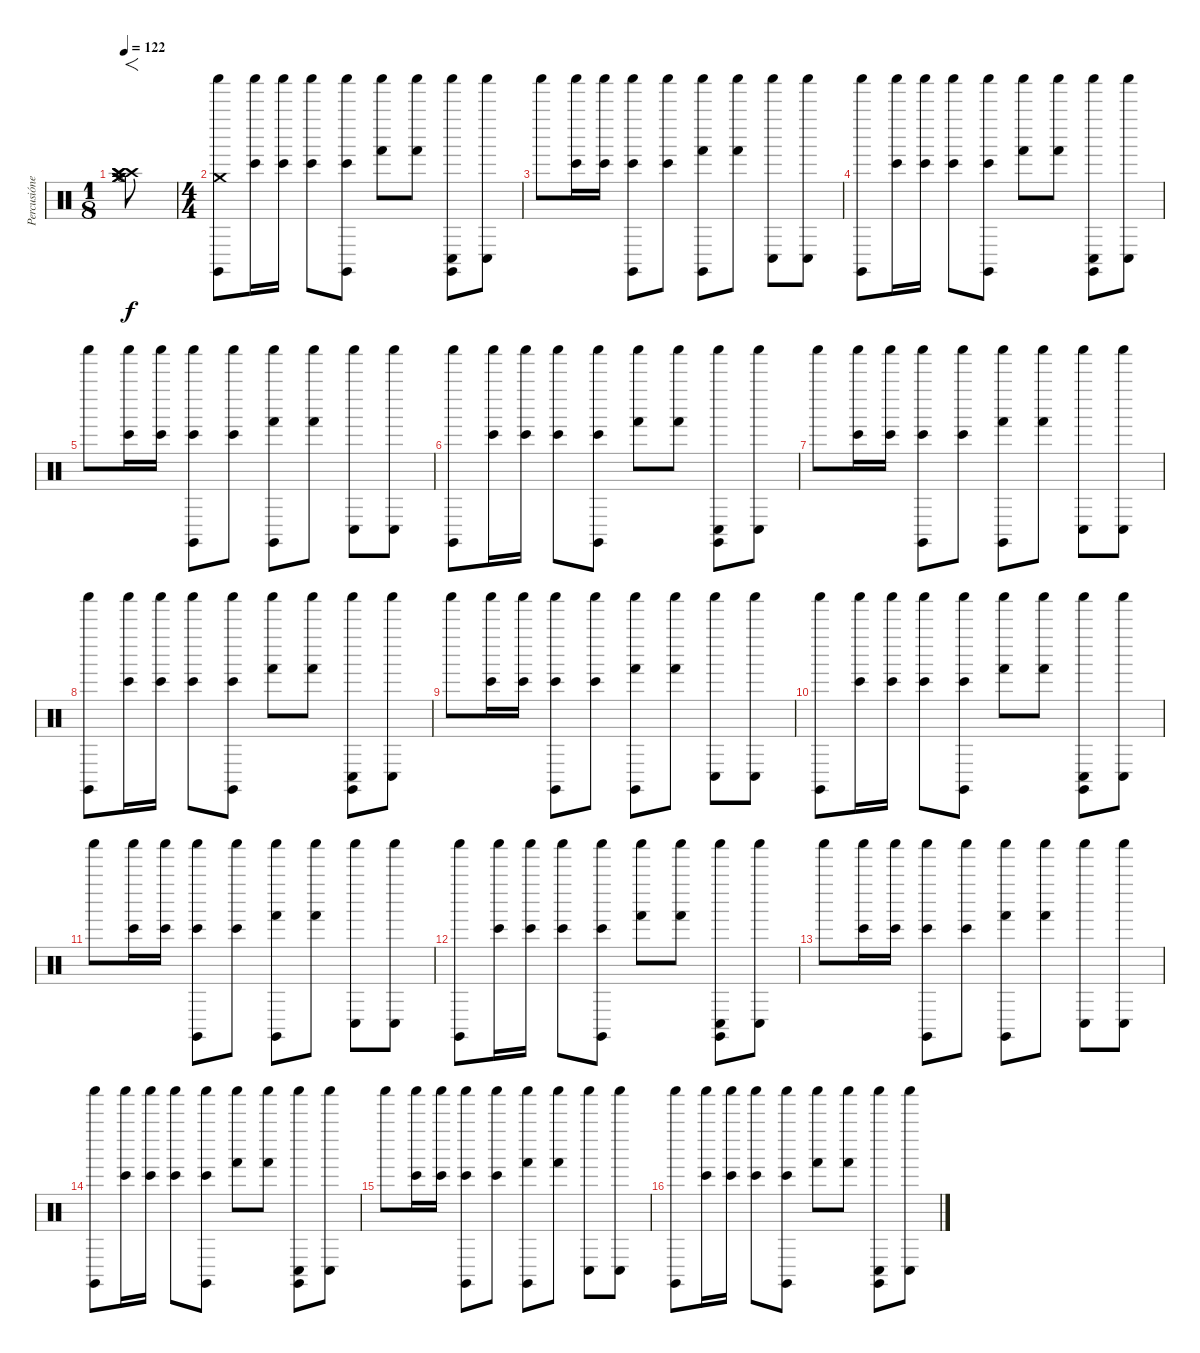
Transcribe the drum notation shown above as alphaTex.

\track ("Percusiónes" "Percusióne") {instrument percussion}
\staff {score}
\articulation defaults
\ts (1 8)
\tempo 122
\clef neutral
\ks c
("Crash high (hit)" "Crash high (hit)" "Crash medium (hit)" "Crash high (hit)" "Hi-Hat (open)" "Crash medium (hit)").8{f dy f} |
\ts (4 4)
("Crash medium (hit)" "Shaker (hit)" "Claves (hit)").8 ("Bongo High (hit)" "Shaker (hit)").16 ("Bongo High (hit)" "Shaker (hit)").16 ("Bongo High (hit)" "Shaker (hit)").8 ("Bongo High (hit)" "Shaker (hit)" "Claves (hit)").8 ("Hand (hit)" "Shaker (hit)").8 ("Hand (hit)" "Shaker (hit)").8 ("Conga low (hit)" "Shaker (hit)" "Claves (hit)").8 ("Conga low (hit)" "Shaker (hit)").8 |
"Shaker (hit)".8 ("Bongo High (hit)" "Shaker (hit)").16 ("Bongo High (hit)" "Shaker (hit)").16 ("Bongo High (hit)" "Shaker (hit)" "Claves (hit)").8 ("Bongo High (hit)" "Shaker (hit)").8 ("Hand (hit)" "Shaker (hit)" "Claves (hit)").8 ("Hand (hit)" "Shaker (hit)").8 ("Conga low (hit)" "Shaker (hit)").8 ("Conga low (hit)" "Shaker (hit)").8 |
("Shaker (hit)" "Claves (hit)").8 ("Bongo High (hit)" "Shaker (hit)").16 ("Bongo High (hit)" "Shaker (hit)").16 ("Bongo High (hit)" "Shaker (hit)").8 ("Bongo High (hit)" "Shaker (hit)" "Claves (hit)").8 ("Hand (hit)" "Shaker (hit)").8 ("Hand (hit)" "Shaker (hit)").8 ("Conga low (hit)" "Shaker (hit)" "Claves (hit)").8 ("Conga low (hit)" "Shaker (hit)").8 |
"Shaker (hit)".8 ("Bongo High (hit)" "Shaker (hit)").16 ("Bongo High (hit)" "Shaker (hit)").16 ("Bongo High (hit)" "Shaker (hit)" "Claves (hit)").8 ("Bongo High (hit)" "Shaker (hit)").8 ("Hand (hit)" "Shaker (hit)" "Claves (hit)").8 ("Hand (hit)" "Shaker (hit)").8 ("Conga low (hit)" "Shaker (hit)").8 ("Conga low (hit)" "Shaker (hit)").8 |
("Shaker (hit)" "Claves (hit)").8 ("Bongo High (hit)" "Shaker (hit)").16 ("Bongo High (hit)" "Shaker (hit)").16 ("Bongo High (hit)" "Shaker (hit)").8 ("Bongo High (hit)" "Shaker (hit)" "Claves (hit)").8 ("Hand (hit)" "Shaker (hit)").8 ("Hand (hit)" "Shaker (hit)").8 ("Conga low (hit)" "Shaker (hit)" "Claves (hit)").8 ("Conga low (hit)" "Shaker (hit)").8 |
"Shaker (hit)".8 ("Bongo High (hit)" "Shaker (hit)").16 ("Bongo High (hit)" "Shaker (hit)").16 ("Bongo High (hit)" "Shaker (hit)" "Claves (hit)").8 ("Bongo High (hit)" "Shaker (hit)").8 ("Hand (hit)" "Shaker (hit)" "Claves (hit)").8 ("Hand (hit)" "Shaker (hit)").8 ("Conga low (hit)" "Shaker (hit)").8 ("Conga low (hit)" "Shaker (hit)").8 |
("Shaker (hit)" "Claves (hit)").8 ("Bongo High (hit)" "Shaker (hit)").16 ("Bongo High (hit)" "Shaker (hit)").16 ("Bongo High (hit)" "Shaker (hit)").8 ("Bongo High (hit)" "Shaker (hit)" "Claves (hit)").8 ("Hand (hit)" "Shaker (hit)").8 ("Hand (hit)" "Shaker (hit)").8 ("Conga low (hit)" "Shaker (hit)" "Claves (hit)").8 ("Conga low (hit)" "Shaker (hit)").8 |
"Shaker (hit)".8 ("Bongo High (hit)" "Shaker (hit)").16 ("Bongo High (hit)" "Shaker (hit)").16 ("Bongo High (hit)" "Shaker (hit)" "Claves (hit)").8 ("Bongo High (hit)" "Shaker (hit)").8 ("Hand (hit)" "Shaker (hit)" "Claves (hit)").8 ("Hand (hit)" "Shaker (hit)").8 ("Conga low (hit)" "Shaker (hit)").8 ("Conga low (hit)" "Shaker (hit)").8 |
("Shaker (hit)" "Claves (hit)").8 ("Bongo High (hit)" "Shaker (hit)").16 ("Bongo High (hit)" "Shaker (hit)").16 ("Bongo High (hit)" "Shaker (hit)").8 ("Bongo High (hit)" "Shaker (hit)" "Claves (hit)").8 ("Hand (hit)" "Shaker (hit)").8 ("Hand (hit)" "Shaker (hit)").8 ("Conga low (hit)" "Shaker (hit)" "Claves (hit)").8 ("Conga low (hit)" "Shaker (hit)").8 |
"Shaker (hit)".8 ("Bongo High (hit)" "Shaker (hit)").16 ("Bongo High (hit)" "Shaker (hit)").16 ("Bongo High (hit)" "Shaker (hit)" "Claves (hit)").8 ("Bongo High (hit)" "Shaker (hit)").8 ("Hand (hit)" "Shaker (hit)" "Claves (hit)").8 ("Hand (hit)" "Shaker (hit)").8 ("Conga low (hit)" "Shaker (hit)").8 ("Conga low (hit)" "Shaker (hit)").8 |
("Shaker (hit)" "Claves (hit)").8 ("Bongo High (hit)" "Shaker (hit)").16 ("Bongo High (hit)" "Shaker (hit)").16 ("Bongo High (hit)" "Shaker (hit)").8 ("Bongo High (hit)" "Shaker (hit)" "Claves (hit)").8 ("Hand (hit)" "Shaker (hit)").8 ("Hand (hit)" "Shaker (hit)").8 ("Conga low (hit)" "Shaker (hit)" "Claves (hit)").8 ("Conga low (hit)" "Shaker (hit)").8 |
"Shaker (hit)".8 ("Bongo High (hit)" "Shaker (hit)").16 ("Bongo High (hit)" "Shaker (hit)").16 ("Bongo High (hit)" "Shaker (hit)" "Claves (hit)").8 ("Bongo High (hit)" "Shaker (hit)").8 ("Hand (hit)" "Shaker (hit)" "Claves (hit)").8 ("Hand (hit)" "Shaker (hit)").8 ("Conga low (hit)" "Shaker (hit)").8 ("Conga low (hit)" "Shaker (hit)").8 |
("Shaker (hit)" "Claves (hit)").8 ("Bongo High (hit)" "Shaker (hit)").16 ("Bongo High (hit)" "Shaker (hit)").16 ("Bongo High (hit)" "Shaker (hit)").8 ("Bongo High (hit)" "Shaker (hit)" "Claves (hit)").8 ("Hand (hit)" "Shaker (hit)").8 ("Hand (hit)" "Shaker (hit)").8 ("Conga low (hit)" "Shaker (hit)" "Claves (hit)").8 ("Conga low (hit)" "Shaker (hit)").8 |
"Shaker (hit)".8 ("Bongo High (hit)" "Shaker (hit)").16 ("Bongo High (hit)" "Shaker (hit)").16 ("Bongo High (hit)" "Shaker (hit)" "Claves (hit)").8 ("Bongo High (hit)" "Shaker (hit)").8 ("Hand (hit)" "Shaker (hit)" "Claves (hit)").8 ("Hand (hit)" "Shaker (hit)").8 ("Conga low (hit)" "Shaker (hit)").8 ("Conga low (hit)" "Shaker (hit)").8 |
("Shaker (hit)" "Claves (hit)").8 ("Bongo High (hit)" "Shaker (hit)").16 ("Bongo High (hit)" "Shaker (hit)").16 ("Bongo High (hit)" "Shaker (hit)").8 ("Bongo High (hit)" "Shaker (hit)" "Claves (hit)").8 ("Hand (hit)" "Shaker (hit)").8 ("Hand (hit)" "Shaker (hit)").8 ("Conga low (hit)" "Shaker (hit)" "Claves (hit)").8 ("Conga low (hit)" "Shaker (hit)").8
